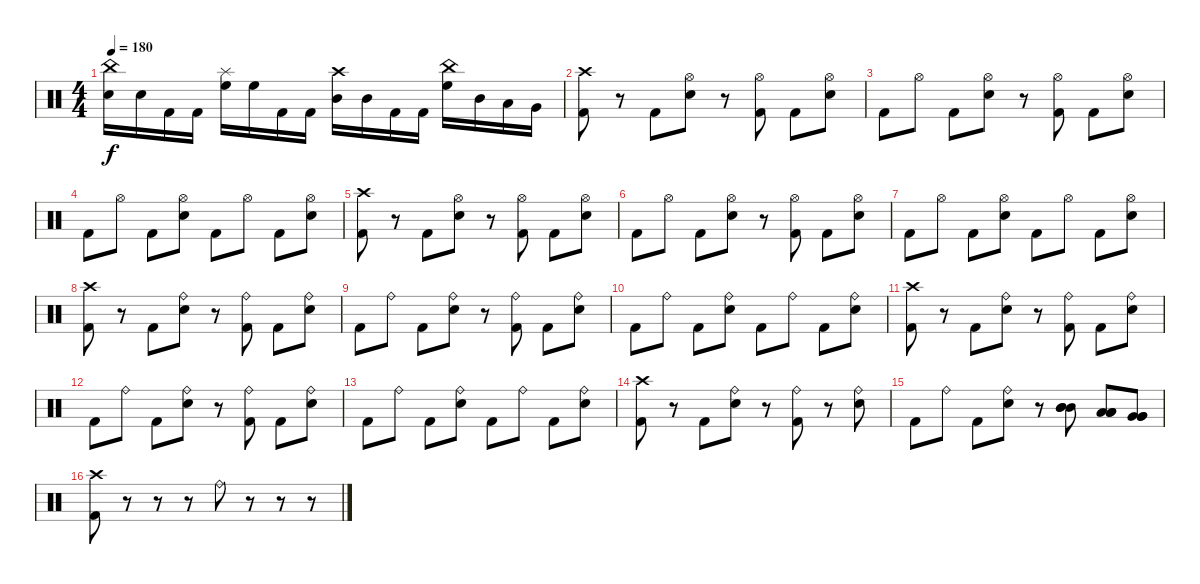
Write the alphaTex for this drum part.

\track "" {instrument percussion}
\staff {score}
\articulation defaults
\ts (4 4)
\tempo 180
\clef neutral
\ks c
("China (hit)" "Electric Snare (hit)").16{dy f} "Electric Snare (hit)".16 "Kick (hit) 2".16 "Kick (hit) 2".16 ("Splash (hit)" "High Floor Tom (hit)").16 "High Floor Tom (hit)".16 "Kick (hit) 2".16 "Kick (hit) 2".16 ("Crash high (hit)" "Mid Tom (hit)").16 "Mid Tom (hit)".16 "Kick (hit) 2".16 "Kick (hit) 2".16 ("China (hit)" "High Floor Tom (hit)").16 "Mid Tom (hit)".16 "Low Tom (hit)".16 "Very Low Tom (hit)".16 |
("Crash high (hit)" "Kick (hit) 2").8 r.8 "Kick (hit) 2".8 ("Hi-Hat (open)" "Electric Snare (hit)").8 r.8 ("Hi-Hat (open)" "Kick (hit) 2").8 "Kick (hit) 2".8 ("Hi-Hat (open)" "Electric Snare (hit)").8 |
"Kick (hit) 2".8 "Hi-Hat (open)".8 "Kick (hit) 2".8 ("Hi-Hat (open)" "Electric Snare (hit)").8 r.8 ("Hi-Hat (open)" "Kick (hit) 2").8 "Kick (hit) 2".8 ("Hi-Hat (open)" "Electric Snare (hit)").8 |
"Kick (hit) 2".8 "Hi-Hat (open)".8 "Kick (hit) 2".8 ("Hi-Hat (open)" "Electric Snare (hit)").8 "Kick (hit) 2".8 "Hi-Hat (open)".8 "Kick (hit) 2".8 ("Hi-Hat (open)" "Electric Snare (hit)").8 |
("Crash high (hit)" "Kick (hit) 2").8 r.8 "Kick (hit) 2".8 ("Hi-Hat (open)" "Electric Snare (hit)").8 r.8 ("Hi-Hat (open)" "Kick (hit) 2").8 "Kick (hit) 2".8 ("Hi-Hat (open)" "Electric Snare (hit)").8 |
"Kick (hit) 2".8 "Hi-Hat (open)".8 "Kick (hit) 2".8 ("Hi-Hat (open)" "Electric Snare (hit)").8 r.8 ("Hi-Hat (open)" "Kick (hit) 2").8 "Kick (hit) 2".8 ("Hi-Hat (open)" "Electric Snare (hit)").8 |
"Kick (hit) 2".8 "Hi-Hat (open)".8 "Kick (hit) 2".8 ("Hi-Hat (open)" "Electric Snare (hit)").8 "Kick (hit) 2".8 "Hi-Hat (open)".8 "Kick (hit) 2".8 ("Hi-Hat (open)" "Electric Snare (hit)").8 |
("Crash high (hit)" "Kick (hit) 2").8 r.8 "Kick (hit) 2".8 ("Ride (bell)" "Electric Snare (hit)").8 r.8 ("Ride (bell)" "Kick (hit) 2").8 "Kick (hit) 2".8 ("Ride (bell)" "Electric Snare (hit)").8 |
"Kick (hit) 2".8 "Ride (bell)".8 "Kick (hit) 2".8 ("Ride (bell)" "Electric Snare (hit)").8 r.8 ("Ride (bell)" "Kick (hit) 2").8 "Kick (hit) 2".8 ("Ride (bell)" "Electric Snare (hit)").8 |
"Kick (hit) 2".8 "Ride (bell)".8 "Kick (hit) 2".8 ("Ride (bell)" "Electric Snare (hit)").8 "Kick (hit) 2".8 "Ride (bell)".8 "Kick (hit) 2".8 ("Ride (bell)" "Electric Snare (hit)").8 |
("Crash high (hit)" "Kick (hit) 2").8 r.8 "Kick (hit) 2".8 ("Ride (bell)" "Electric Snare (hit)").8 r.8 ("Ride (bell)" "Kick (hit) 2").8 "Kick (hit) 2".8 ("Ride (bell)" "Electric Snare (hit)").8 |
"Kick (hit) 2".8 "Ride (bell)".8 "Kick (hit) 2".8 ("Ride (bell)" "Electric Snare (hit)").8 r.8 ("Ride (bell)" "Kick (hit) 2").8 "Kick (hit) 2".8 ("Ride (bell)" "Electric Snare (hit)").8 |
"Kick (hit) 2".8 "Ride (bell)".8 "Kick (hit) 2".8 ("Ride (bell)" "Electric Snare (hit)").8 "Kick (hit) 2".8 "Ride (bell)".8 "Kick (hit) 2".8 ("Ride (bell)" "Electric Snare (hit)").8 |
("Crash high (hit)" "Kick (hit) 2").8 r.8 "Kick (hit) 2".8 ("Ride (bell)" "Electric Snare (hit)").8 r.8 ("Ride (bell)" "Kick (hit) 2").8 r.8 ("Ride (bell)" "Electric Snare (hit)").8 |
"Kick (hit) 2".8 "Ride (bell)".8 "Kick (hit) 2".8 ("Ride (bell)" "Electric Snare (hit)").8 r.8 ("Mid Tom (hit)" "Mid Tom (hit)" "Mid Tom (hit)").8 ("Low Tom (hit)" "Low Tom (hit)" "Low Tom (hit)").8 ("Very Low Tom (hit)" "Very Low Tom (hit)" "Very Low Tom (hit)").8 |
("Crash high (hit)" "Kick (hit) 2").8 r.8 r.8 r.8 "Ride (bell)".8 r.8 r.8 r.8
